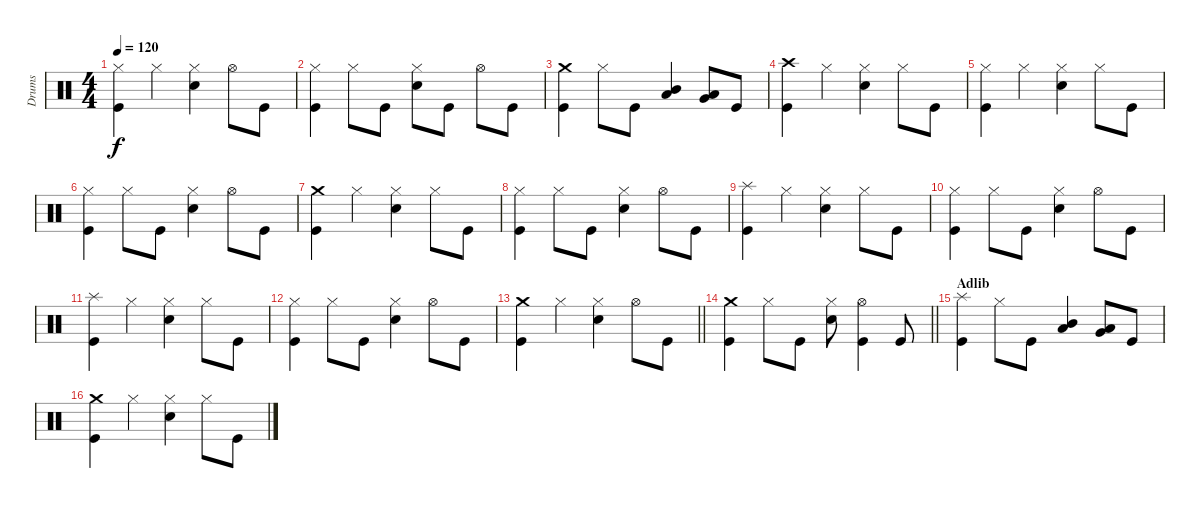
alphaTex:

\track ("Drums" "Drums") {instrument percussion}
\staff {score}
\articulation defaults
\ts (4 4)
\tempo 120
\clef neutral
\ks c
("Kick (hit)" "Hi-Hat (closed)").4{dy f} "Hi-Hat (closed)".4 ("Snare (hit) 2" "Hi-Hat (closed)").4 "Hi-Hat (open)".8 "Kick (hit)".8 |
("Kick (hit)" "Hi-Hat (closed)").4 "Hi-Hat (closed)".8 "Kick (hit)".8 ("Snare (hit) 2" "Hi-Hat (closed)").8 "Kick (hit)".8 "Hi-Hat (open)".8 "Kick (hit)".8 |
("Kick (hit)" "Crash medium (hit)").4 "Hi-Hat (closed)".8 "Kick (hit)".8 ("Low Tom (hit)" "Mid Tom (hit)").4 ("Low Tom (hit)" "Very Low Tom (hit)").8 "Kick (hit)".8 |
("Kick (hit)" "Crash high (hit)").4 "Hi-Hat (closed)".4 ("Snare (hit) 2" "Hi-Hat (closed)").4 "Hi-Hat (closed)".8 "Kick (hit)".8 |
("Kick (hit)" "Hi-Hat (closed)").4 "Hi-Hat (closed)".4 ("Snare (hit) 2" "Hi-Hat (closed)").4 "Hi-Hat (closed)".8 "Kick (hit)".8 |
("Kick (hit)" "Hi-Hat (closed)").4 "Hi-Hat (closed)".8 "Kick (hit)".8 ("Snare (hit) 2" "Hi-Hat (closed)").4 "Hi-Hat (open)".8 "Kick (hit)".8 |
("Kick (hit)" "Crash medium (hit)").4 "Hi-Hat (closed)".4 ("Snare (hit) 2" "Hi-Hat (closed)").4 "Hi-Hat (closed)".8 "Kick (hit)".8 |
("Kick (hit)" "Hi-Hat (closed)").4 "Hi-Hat (closed)".8 "Kick (hit)".8 ("Snare (hit) 2" "Hi-Hat (closed)").4 "Hi-Hat (open)".8 "Kick (hit)".8 |
("Kick (hit)" "Splash (hit)").4 "Hi-Hat (closed)".4 ("Snare (hit) 2" "Hi-Hat (closed)").4 "Hi-Hat (closed)".8 "Kick (hit)".8 |
("Kick (hit)" "Hi-Hat (closed)").4 "Hi-Hat (closed)".8 "Kick (hit)".8 ("Snare (hit) 2" "Hi-Hat (closed)").4 "Hi-Hat (open)".8 "Kick (hit)".8 |
("Kick (hit)" "Splash (hit)").4 "Hi-Hat (closed)".4 ("Snare (hit) 2" "Hi-Hat (closed)").4 "Hi-Hat (closed)".8 "Kick (hit)".8 |
("Kick (hit)" "Hi-Hat (closed)").4 "Hi-Hat (closed)".8 "Kick (hit)".8 ("Snare (hit) 2" "Hi-Hat (closed)").4 "Hi-Hat (open)".8 "Kick (hit)".8 |
\barLineRight lightlight
("Kick (hit)" "Crash medium (hit)").4 "Hi-Hat (closed)".4 ("Snare (hit) 2" "Hi-Hat (closed)").4 "Hi-Hat (open)".8 "Kick (hit)".8 |
\barLineRight lightlight
("Kick (hit)" "Crash medium (hit)").4 "Hi-Hat (closed)".8 "Kick (hit)".8 ("Snare (hit) 2" "Hi-Hat (closed)").8 ("Kick (hit)" "Hi-Hat (open)").4 "Kick (hit)".8 |
\section ("" "Adlib")
("Kick (hit)" "Splash (hit)").4 "Hi-Hat (closed)".8 "Kick (hit)".8 ("Low Tom (hit)" "Mid Tom (hit)").4 ("Very Low Tom (hit)" "Low Tom (hit)").8 "Kick (hit)".8 |
("Kick (hit)" "Crash medium (hit)").4 "Hi-Hat (closed)".4 ("Snare (hit) 2" "Hi-Hat (closed)").4 "Hi-Hat (closed)".8 "Kick (hit)".8
